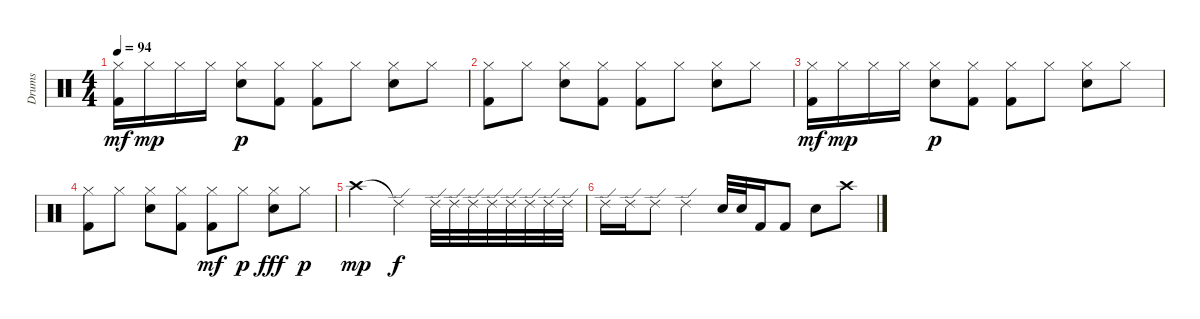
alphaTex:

\track ("Drums" "Drums") {instrument percussion}
\staff {score}
\articulation defaults
\ts (4 4)
\tempo 94
\clef neutral
\ks c
("Hi-Hat (closed)" "Kick (hit) 2").16{dy mf} "Hi-Hat (closed)".16{dy mp} "Hi-Hat (closed)".16 "Hi-Hat (closed)".16 ("Hi-Hat (closed)" "Snare (hit) 2").8{dy p} ("Hi-Hat (closed)" "Kick (hit) 2").8 ("Hi-Hat (closed)" "Kick (hit) 2").8 "Hi-Hat (closed)".8 ("Hi-Hat (closed)" "Snare (hit) 2").8 "Hi-Hat (closed)".8 |
("Hi-Hat (closed)" "Kick (hit) 2").8 "Hi-Hat (closed)".8 ("Hi-Hat (closed)" "Snare (hit) 2").8 ("Hi-Hat (closed)" "Kick (hit) 2").8 ("Hi-Hat (closed)" "Kick (hit) 2").8 "Hi-Hat (closed)".8 ("Hi-Hat (closed)" "Snare (hit) 2").8 "Hi-Hat (closed)".8 |
("Hi-Hat (closed)" "Kick (hit) 2").16{dy mf} "Hi-Hat (closed)".16{dy mp} "Hi-Hat (closed)".16 "Hi-Hat (closed)".16 ("Hi-Hat (closed)" "Snare (hit) 2").8{dy p} ("Hi-Hat (closed)" "Kick (hit) 2").8 ("Hi-Hat (closed)" "Kick (hit) 2").8 "Hi-Hat (closed)".8 ("Hi-Hat (closed)" "Snare (hit) 2").8 "Hi-Hat (closed)".8 |
("Hi-Hat (closed)" "Kick (hit) 2").8 "Hi-Hat (closed)".8 ("Hi-Hat (closed)" "Snare (hit) 2").8 ("Hi-Hat (closed)" "Kick (hit) 2").8 ("Hi-Hat (closed)" "Kick (hit) 2").8{dy mf} "Hi-Hat (closed)".8{dy p} ("Hi-Hat (closed)" "Snare (hit) 2").8{dy fff} "Hi-Hat (closed)".8{dy p} |
"Crash high (hit)".2{dy mp} "Ride (edge) 2"{t}.4{dy f} "Ride (edge) 2".32 "Ride (edge) 2".32 "Ride (edge) 2".32 "Ride (edge) 2".32 "Ride (edge) 2".32 "Ride (edge) 2".32 "Ride (edge) 2".32 "Ride (edge) 2".32 |
"Ride (edge) 2".16 "Ride (edge) 2".16 "Ride (edge) 2".8 "Ride (edge) 2".4 "Snare (hit) 2".32 "Snare (hit) 2".32 "Kick (hit) 2".16 "Kick (hit) 2".8 "Snare (hit) 2".8 "Crash high (hit)".8
